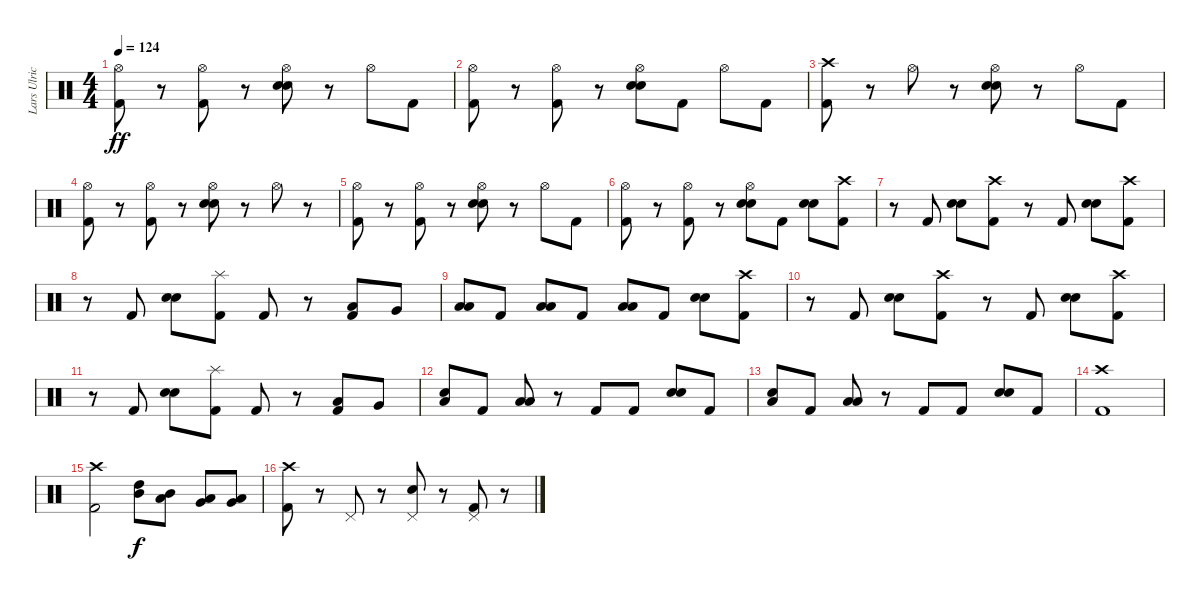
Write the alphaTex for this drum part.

\track ("Lars Ulrich" "Lars Ulric") {instrument percussion}
\staff {score}
\articulation defaults
\ts (4 4)
\tempo 124
\clef neutral
\ks c
("Hi-Hat (open)" "Kick (hit) 2").8{dy ff} r.8 ("Hi-Hat (open)" "Kick (hit) 2").8 r.8 ("Hi-Hat (open)" "Electric Snare (hit)" "Electric Snare (hit)").8 r.8 "Hi-Hat (open)".8 "Kick (hit) 2".8 |
("Hi-Hat (open)" "Kick (hit) 2").8 r.8 ("Hi-Hat (open)" "Kick (hit) 2").8 r.8 ("Hi-Hat (open)" "Electric Snare (hit)" "Electric Snare (hit)").8 "Kick (hit) 2".8 "Hi-Hat (open)".8 "Kick (hit) 2".8 |
("Crash high (hit)" "Kick (hit) 2").8 r.8 "Hi-Hat (open)".8 r.8 ("Hi-Hat (open)" "Electric Snare (hit)" "Electric Snare (hit)").8 r.8 "Hi-Hat (open)".8 "Kick (hit) 2".8 |
("Hi-Hat (open)" "Kick (hit) 2").8 r.8 ("Hi-Hat (open)" "Kick (hit) 2").8 r.8 ("Hi-Hat (open)" "Electric Snare (hit)" "Electric Snare (hit)").8 r.8 "Hi-Hat (open)".8 r.8 |
("Hi-Hat (open)" "Kick (hit) 2").8 r.8 ("Hi-Hat (open)" "Kick (hit) 2").8 r.8 ("Hi-Hat (open)" "Electric Snare (hit)" "Electric Snare (hit)").8 r.8 "Hi-Hat (open)".8 "Kick (hit) 2".8 |
("Hi-Hat (open)" "Kick (hit) 2").8 r.8 ("Hi-Hat (open)" "Kick (hit) 2").8 r.8 ("Hi-Hat (open)" "Electric Snare (hit)" "Electric Snare (hit)").8 "Kick (hit) 2".8 ("Electric Snare (hit)" "Electric Snare (hit)").8{bd 240} ("Crash high (hit)" "Kick (hit) 2").8 |
r.8 "Kick (hit) 2".8 ("Electric Snare (hit)" "Electric Snare (hit)").8{bd 240} ("Crash high (hit)" "Kick (hit) 2").8 r.8 "Kick (hit) 2".8 ("Electric Snare (hit)" "Electric Snare (hit)").8{bd 240} ("Crash high (hit)" "Kick (hit) 2").8 |
r.8 "Kick (hit) 2".8 ("Electric Snare (hit)" "Electric Snare (hit)").8{bd 240} ("Splash (hit)" "Kick (hit) 2").8 "Kick (hit) 2".8 r.8 ("Low Floor Tom (hit)" "Kick (hit) 2").8 "Very Low Tom (hit)".8 |
("Low Tom (hit)" "Low Tom (hit)").8 "Kick (hit) 2".8 ("Low Tom (hit)" "Low Tom (hit)").8 "Kick (hit) 2".8 ("Low Tom (hit)" "Low Tom (hit)").8 "Kick (hit) 2".8 ("Electric Snare (hit)" "Electric Snare (hit)").8{bd 240} ("Crash high (hit)" "Kick (hit) 2").8 |
r.8 "Kick (hit) 2".8 ("Electric Snare (hit)" "Electric Snare (hit)").8{bd 240} ("Crash high (hit)" "Kick (hit) 2").8 r.8 "Kick (hit) 2".8 ("Electric Snare (hit)" "Electric Snare (hit)").8{bd 240} ("Crash high (hit)" "Kick (hit) 2").8 |
r.8 "Kick (hit) 2".8 ("Electric Snare (hit)" "Electric Snare (hit)").8{bd 240} ("Splash (hit)" "Kick (hit) 2").8 "Kick (hit) 2".8 r.8 ("Low Floor Tom (hit)" "Kick (hit) 2").8 "Very Low Tom (hit)".8 |
("Electric Snare (hit)" "Low Tom (hit)").8 "Kick (hit) 2".8 ("Low Tom (hit)" "Low Tom (hit)").8 r.8 "Kick (hit) 2".8 "Kick (hit) 2".8 ("Electric Snare (hit)" "Electric Snare (hit)").8{bd 240} "Kick (hit) 2".8 |
("Electric Snare (hit)" "Low Tom (hit)").8 "Kick (hit) 2".8 ("Low Tom (hit)" "Low Tom (hit)").8 r.8 "Kick (hit) 2".8 "Kick (hit) 2".8 ("Electric Snare (hit)" "Electric Snare (hit)").8{bd 240} "Kick (hit) 2".8 |
("Crash high (hit)" "Kick (hit) 2").1 |
("Crash high (hit)" "Kick (hit) 2").2 ("High Tom (hit)" "Mid Tom (hit)").8{dy f} ("Mid Tom (hit)" "Low Tom (hit)").8 ("Low Tom (hit)" "Very Low Tom (hit)").8 ("Very Low Tom (hit)" "Low Floor Tom (hit)").8 |
("Crash high (hit)" "Kick (hit) 2").8 r.8 "Pedal Hi-Hat (hit)".8 r.8 ("Pedal Hi-Hat (hit)" "Electric Snare (hit)").8 r.8 ("Pedal Hi-Hat (hit)" "Kick (hit) 2").8 r.8
